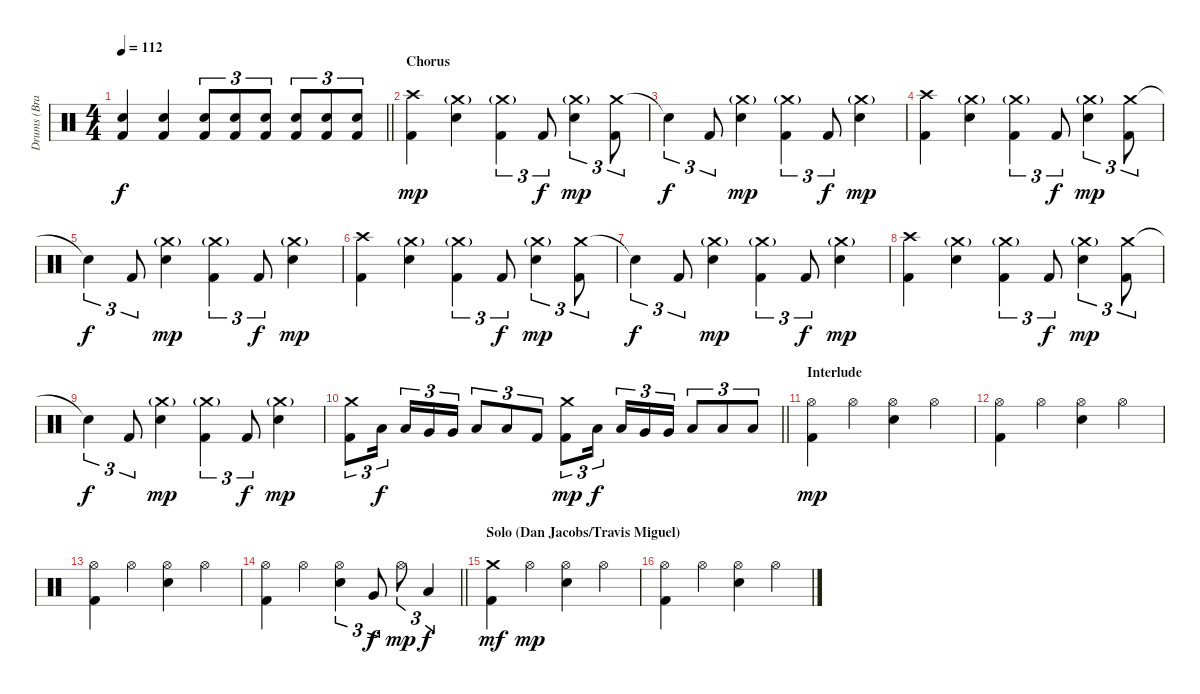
\track ("Drums (Brandon Saller)" "Drums (Bra") {instrument percussion}
\staff {score}
\articulation defaults
\ts (4 4)
\tempo 112
\clef neutral
\barLineRight lightlight
\ks c
("Electric Snare (hit)" "Kick (hit) 2").4{dy f} ("Electric Snare (hit)" "Kick (hit) 2").4 ("Electric Snare (hit)" "Kick (hit) 2").8{tu (3 2)} ("Electric Snare (hit)" "Kick (hit) 2").8{tu (3 2)} ("Electric Snare (hit)" "Kick (hit) 2").8{tu (3 2)} ("Electric Snare (hit)" "Kick (hit) 2").8{tu (3 2)} ("Electric Snare (hit)" "Kick (hit) 2").8{tu (3 2)} ("Electric Snare (hit)" "Kick (hit) 2").8{tu (3 2)} |
\section ("" "Chorus")
("Crash high (hit)" "Kick (hit) 2").4{dy mp} ("Crash medium (hit)"{g} "Electric Snare (hit)").4 ("Crash medium (hit)"{g} "Kick (hit) 2").4{tu (3 2)} "Kick (hit) 2".8{tu (3 2) dy f} ("Crash medium (hit)"{g} "Electric Snare (hit)").4{tu (3 2) dy mp} ("Crash medium (hit)" "Kick (hit) 2").8{tu (3 2)} |
"Snare (hit)"{t}.4{tu (3 2) dy f} "Kick (hit) 2".8{tu (3 2)} ("Crash medium (hit)"{g} "Electric Snare (hit)").4{dy mp} ("Crash medium (hit)"{g} "Kick (hit) 2").4{tu (3 2)} "Kick (hit) 2".8{tu (3 2) dy f} ("Crash medium (hit)"{g} "Electric Snare (hit)").4{dy mp} |
("Crash high (hit)" "Kick (hit) 2").4 ("Crash medium (hit)"{g} "Electric Snare (hit)").4 ("Crash medium (hit)"{g} "Kick (hit) 2").4{tu (3 2)} "Kick (hit) 2".8{tu (3 2) dy f} ("Crash medium (hit)"{g} "Electric Snare (hit)").4{tu (3 2) dy mp} ("Crash medium (hit)" "Kick (hit) 2").8{tu (3 2)} |
"Snare (hit)"{t}.4{tu (3 2) dy f} "Kick (hit) 2".8{tu (3 2)} ("Crash medium (hit)"{g} "Electric Snare (hit)").4{dy mp} ("Crash medium (hit)"{g} "Kick (hit) 2").4{tu (3 2)} "Kick (hit) 2".8{tu (3 2) dy f} ("Crash medium (hit)"{g} "Electric Snare (hit)").4{dy mp} |
("Crash high (hit)" "Kick (hit) 2").4 ("Crash medium (hit)"{g} "Electric Snare (hit)").4 ("Crash medium (hit)"{g} "Kick (hit) 2").4{tu (3 2)} "Kick (hit) 2".8{tu (3 2) dy f} ("Crash medium (hit)"{g} "Electric Snare (hit)").4{tu (3 2) dy mp} ("Crash medium (hit)" "Kick (hit) 2").8{tu (3 2)} |
"Snare (hit)"{t}.4{tu (3 2) dy f} "Kick (hit) 2".8{tu (3 2)} ("Crash medium (hit)"{g} "Electric Snare (hit)").4{dy mp} ("Crash medium (hit)"{g} "Kick (hit) 2").4{tu (3 2)} "Kick (hit) 2".8{tu (3 2) dy f} ("Crash medium (hit)"{g} "Electric Snare (hit)").4{dy mp} |
("Crash high (hit)" "Kick (hit) 2").4 ("Crash medium (hit)"{g} "Electric Snare (hit)").4 ("Crash medium (hit)"{g} "Kick (hit) 2").4{tu (3 2)} "Kick (hit) 2".8{tu (3 2) dy f} ("Crash medium (hit)"{g} "Electric Snare (hit)").4{tu (3 2) dy mp} ("Crash medium (hit)" "Kick (hit) 2").8{tu (3 2)} |
"Snare (hit)"{t}.4{tu (3 2) dy f} "Kick (hit) 2".8{tu (3 2)} ("Crash medium (hit)"{g} "Electric Snare (hit)").4{dy mp} ("Crash medium (hit)"{g} "Kick (hit) 2").4{tu (3 2)} "Kick (hit) 2".8{tu (3 2) dy f} ("Crash medium (hit)"{g} "Electric Snare (hit)").4{dy mp} |
\barLineRight lightlight
("Crash medium (hit)" "Kick (hit) 2").8{tu (3 2)} "Low Tom (hit)".16{tu (3 2) dy f beam splitsecondary} "Low Tom (hit)".16{tu (3 2)} "Very Low Tom (hit)".16{tu (3 2)} "Very Low Tom (hit)".16{tu (3 2)} "Low Floor Tom (hit)".8{tu (3 2)} "Low Floor Tom (hit)".8{tu (3 2)} "Kick (hit) 2".8{tu (3 2)} ("Crash medium (hit)" "Kick (hit) 2").8{tu (3 2) dy mp} "Low Tom (hit)".16{tu (3 2) dy f beam splitsecondary} "Low Tom (hit)".16{tu (3 2)} "Very Low Tom (hit)".16{tu (3 2)} "Very Low Tom (hit)".16{tu (3 2)} "Low Floor Tom (hit)".8{tu (3 2)} "Low Floor Tom (hit)".8{tu (3 2)} "Low Floor Tom (hit)".8{tu (3 2)} |
\section ("" "Interlude")
("Hi-Hat (open)" "Kick (hit) 2").4{dy mp} "Hi-Hat (open)".4 ("Hi-Hat (open)" "Electric Snare (hit)").4 "Hi-Hat (open)".4 |
("Hi-Hat (open)" "Kick (hit) 2").4 "Hi-Hat (open)".4 ("Hi-Hat (open)" "Electric Snare (hit)").4 "Hi-Hat (open)".4 |
("Hi-Hat (open)" "Kick (hit) 2").4 "Hi-Hat (open)".4 ("Hi-Hat (open)" "Electric Snare (hit)").4 "Hi-Hat (open)".4 |
\barLineRight lightlight
("Hi-Hat (open)" "Kick (hit) 2").4 "Hi-Hat (open)".4 ("Hi-Hat (open)" "Electric Snare (hit)").4{tu (3 2)} "Very Low Tom (hit)".8{tu (3 2) dy f} "Hi-Hat (open)".8{tu (3 2) dy mp} "Low Floor Tom (hit)".4{tu (3 2) dy f} |
\section ("" "Solo (Dan Jacobs/Travis Miguel)")
("Crash medium (hit)" "Kick (hit) 2").4{dy mf} "Hi-Hat (open)".4{dy mp} ("Hi-Hat (open)" "Electric Snare (hit)").4 "Hi-Hat (open)".4 |
("Hi-Hat (open)" "Kick (hit) 2").4 "Hi-Hat (open)".4 ("Hi-Hat (open)" "Electric Snare (hit)").4 "Hi-Hat (open)".4
